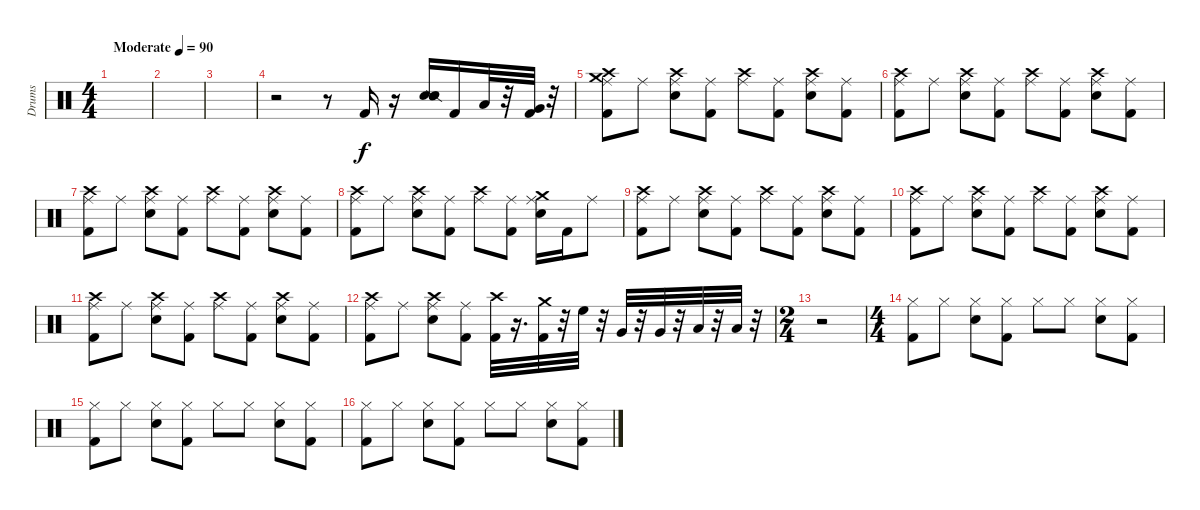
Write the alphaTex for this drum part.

\track ("Drums" "Drums") {instrument percussion}
\staff {score}
\articulation defaults
\ts (4 4)
\tempo (90 "Moderate")
\clef neutral
\ks c
|
|
|
r.2 r.8 "Kick (hit) 2".16 r.16 ("Snare (hit) 2" "Snare (hit) 2" "Snare (side stick) 2").16 "Kick (hit) 2".16 "Low Tom (hit)".32 r.32 ("Kick (hit) 2" "Very Low Tom (hit)").32 r.32 |
("Kick (hit) 2" "Crash high (hit)" "Ride (middle)" "Crash medium (hit)").8 "Ride (middle)".8 ("Snare (hit) 2" "Crash high (hit)" "Ride (middle)").8 ("Kick (hit) 2" "Ride (middle)").8 ("Crash high (hit)" "Ride (middle)").8 ("Kick (hit) 2" "Ride (middle)").8 ("Snare (hit) 2" "Crash high (hit)" "Ride (middle)").8 ("Kick (hit) 2" "Ride (middle)").8 |
("Kick (hit) 2" "Crash high (hit)" "Ride (middle)").8 "Ride (middle)".8 ("Snare (hit) 2" "Crash high (hit)" "Ride (middle)").8 ("Kick (hit) 2" "Ride (middle)").8 ("Crash high (hit)" "Ride (middle)").8 ("Kick (hit) 2" "Ride (middle)").8 ("Snare (hit) 2" "Crash high (hit)" "Ride (middle)").8 ("Kick (hit) 2" "Ride (middle)").8 |
("Kick (hit) 2" "Crash high (hit)" "Ride (middle)").8 "Ride (middle)".8 ("Snare (hit) 2" "Crash high (hit)" "Ride (middle)").8 ("Kick (hit) 2" "Ride (middle)").8 ("Crash high (hit)" "Ride (middle)").8 ("Kick (hit) 2" "Ride (middle)").8 ("Snare (hit) 2" "Crash high (hit)" "Ride (middle)").8 ("Kick (hit) 2" "Ride (middle)").8 |
("Kick (hit) 2" "Crash high (hit)" "Ride (middle)").8 "Ride (middle)".8 ("Snare (hit) 2" "Crash high (hit)" "Ride (middle)").8 ("Kick (hit) 2" "Ride (middle)").8 ("Crash high (hit)" "Ride (middle)").8 ("Kick (hit) 2" "Ride (middle)").8 ("Snare (hit) 2" "Ride (middle)" "Crash medium (hit)").16 "Kick (hit) 2".16 "Ride (middle)".8 |
("Kick (hit) 2" "Crash high (hit)" "Ride (middle)").8 "Ride (middle)".8 ("Snare (hit) 2" "Crash high (hit)" "Ride (middle)").8 ("Kick (hit) 2" "Ride (middle)").8 ("Crash high (hit)" "Ride (middle)").8 ("Kick (hit) 2" "Ride (middle)").8 ("Snare (hit) 2" "Crash high (hit)" "Ride (middle)").8 ("Kick (hit) 2" "Ride (middle)").8 |
("Kick (hit) 2" "Crash high (hit)" "Ride (middle)").8 "Ride (middle)".8 ("Snare (hit) 2" "Crash high (hit)" "Ride (middle)").8 ("Kick (hit) 2" "Ride (middle)").8 ("Crash high (hit)" "Ride (middle)").8 ("Kick (hit) 2" "Ride (middle)").8 ("Snare (hit) 2" "Crash high (hit)" "Ride (middle)").8 ("Kick (hit) 2" "Ride (middle)").8 |
("Kick (hit) 2" "Crash high (hit)" "Ride (middle)").8 "Ride (middle)".8 ("Snare (hit) 2" "Crash high (hit)" "Ride (middle)").8 ("Kick (hit) 2" "Ride (middle)").8 ("Crash high (hit)" "Ride (middle)").8 ("Kick (hit) 2" "Ride (middle)").8 ("Snare (hit) 2" "Crash high (hit)" "Ride (middle)").8 ("Kick (hit) 2" "Ride (middle)").8 |
("Kick (hit) 2" "Crash high (hit)" "Ride (middle)").8 "Ride (middle)".8 ("Snare (hit) 2" "Crash high (hit)" "Ride (middle)").8 ("Kick (hit) 2" "Ride (middle)").8 ("Kick (hit) 2" "Crash high (hit)").32 r.16{d} ("Crash medium (hit)" "Kick (hit) 2").32 r.32 "High Floor Tom (hit)".32 r.32 "Very Low Tom (hit)".32 r.32 "Very Low Tom (hit)".32 r.32 "Low Floor Tom (hit)".32 r.32 "Low Floor Tom (hit)".32 r.32 |
\ts (2 4)
r.2 |
\ts (4 4)
("Kick (hit) 2" "Hi-Hat (closed)").8 "Hi-Hat (closed)".8 ("Snare (hit) 2" "Hi-Hat (closed)").8 ("Kick (hit) 2" "Hi-Hat (closed)").8 "Hi-Hat (closed)".8 "Hi-Hat (closed)".8 ("Snare (hit) 2" "Hi-Hat (closed)").8 ("Kick (hit) 2" "Hi-Hat (closed)").8 |
("Kick (hit) 2" "Hi-Hat (closed)").8 "Hi-Hat (closed)".8 ("Snare (hit) 2" "Hi-Hat (closed)").8 ("Kick (hit) 2" "Hi-Hat (closed)").8 "Hi-Hat (closed)".8 "Hi-Hat (closed)".8 ("Snare (hit) 2" "Hi-Hat (closed)").8 ("Kick (hit) 2" "Hi-Hat (closed)").8 |
("Kick (hit) 2" "Hi-Hat (closed)").8 "Hi-Hat (closed)".8 ("Snare (hit) 2" "Hi-Hat (closed)").8 ("Kick (hit) 2" "Hi-Hat (closed)").8 "Hi-Hat (closed)".8 "Hi-Hat (closed)".8 ("Snare (hit) 2" "Hi-Hat (closed)").8 ("Kick (hit) 2" "Hi-Hat (closed)").8
